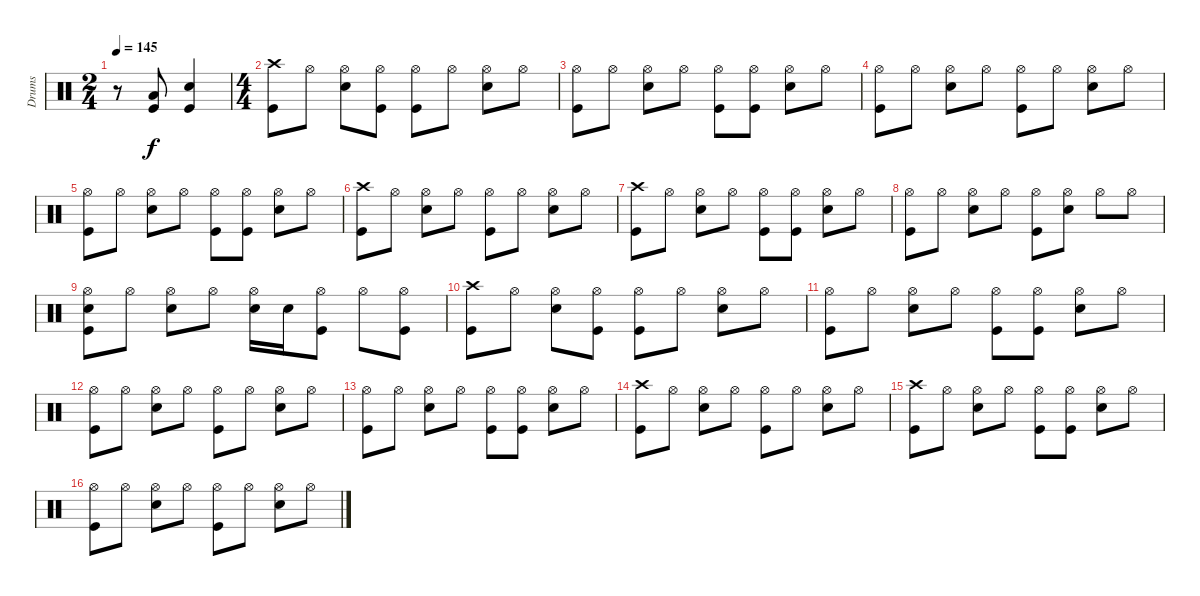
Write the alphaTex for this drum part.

\track ("Drums" "Drums") {instrument percussion}
\staff {score}
\articulation defaults
\ts (2 4)
\tempo 145
\clef neutral
\ks c
r.8{dy f} ("Low Floor Tom (hit)" "Kick (hit)").8 ("Snare (hit) 2" "Kick (hit)").4 |
\ts (4 4)
("Crash high (hit)" "Kick (hit)").8 "Hi-Hat (open)".8 ("Hi-Hat (open)" "Snare (hit) 2").8 ("Hi-Hat (open)" "Kick (hit)").8 ("Hi-Hat (open)" "Kick (hit)").8 "Hi-Hat (open)".8 ("Hi-Hat (open)" "Snare (hit) 2").8 "Hi-Hat (open)".8 |
("Hi-Hat (open)" "Kick (hit)").8 "Hi-Hat (open)".8 ("Hi-Hat (open)" "Snare (hit) 2").8 "Hi-Hat (open)".8 ("Hi-Hat (open)" "Kick (hit)").8 ("Hi-Hat (open)" "Kick (hit)").8 ("Hi-Hat (open)" "Snare (hit) 2").8 "Hi-Hat (open)".8 |
("Hi-Hat (open)" "Kick (hit)").8 "Hi-Hat (open)".8 ("Hi-Hat (open)" "Snare (hit) 2").8 "Hi-Hat (open)".8 ("Hi-Hat (open)" "Kick (hit)").8 "Hi-Hat (open)".8 ("Hi-Hat (open)" "Snare (hit) 2").8 "Hi-Hat (open)".8 |
("Hi-Hat (open)" "Kick (hit)").8 "Hi-Hat (open)".8 ("Hi-Hat (open)" "Snare (hit) 2").8 "Hi-Hat (open)".8 ("Hi-Hat (open)" "Kick (hit)").8 ("Hi-Hat (open)" "Kick (hit)").8 ("Hi-Hat (open)" "Snare (hit) 2").8 "Hi-Hat (open)".8 |
("Crash high (hit)" "Kick (hit)").8 "Hi-Hat (open)".8 ("Hi-Hat (open)" "Snare (hit) 2").8 "Hi-Hat (open)".8 ("Hi-Hat (open)" "Kick (hit)").8 "Hi-Hat (open)".8 ("Hi-Hat (open)" "Snare (hit) 2").8 "Hi-Hat (open)".8 |
("Crash high (hit)" "Kick (hit)").8 "Hi-Hat (open)".8 ("Hi-Hat (open)" "Snare (hit) 2").8 "Hi-Hat (open)".8 ("Hi-Hat (open)" "Kick (hit)").8 ("Hi-Hat (open)" "Kick (hit)").8 ("Hi-Hat (open)" "Snare (hit) 2").8 "Hi-Hat (open)".8 |
("Hi-Hat (open)" "Kick (hit)").8 "Hi-Hat (open)".8 ("Hi-Hat (open)" "Snare (hit) 2").8 "Hi-Hat (open)".8 ("Hi-Hat (open)" "Kick (hit)").8 ("Hi-Hat (open)" "Snare (hit) 2").8 "Hi-Hat (open)".8 "Hi-Hat (open)".8 |
("Hi-Hat (open)" "Snare (hit) 2" "Kick (hit)").8 "Hi-Hat (open)".8 ("Hi-Hat (open)" "Snare (hit) 2").8 "Hi-Hat (open)".8 ("Hi-Hat (open)" "Snare (hit) 2").16 "Snare (hit) 2".16 ("Hi-Hat (open)" "Kick (hit)").8 "Hi-Hat (open)".8 ("Hi-Hat (open)" "Kick (hit)").8 |
("Crash high (hit)" "Kick (hit)").8 "Hi-Hat (open)".8 ("Hi-Hat (open)" "Snare (hit) 2").8 ("Hi-Hat (open)" "Kick (hit)").8 ("Hi-Hat (open)" "Kick (hit)").8 "Hi-Hat (open)".8 ("Hi-Hat (open)" "Snare (hit) 2").8 "Hi-Hat (open)".8 |
("Hi-Hat (open)" "Kick (hit)").8 "Hi-Hat (open)".8 ("Hi-Hat (open)" "Snare (hit) 2").8 "Hi-Hat (open)".8 ("Hi-Hat (open)" "Kick (hit)").8 ("Hi-Hat (open)" "Kick (hit)").8 ("Hi-Hat (open)" "Snare (hit) 2").8 "Hi-Hat (open)".8 |
("Hi-Hat (open)" "Kick (hit)").8 "Hi-Hat (open)".8 ("Hi-Hat (open)" "Snare (hit) 2").8 "Hi-Hat (open)".8 ("Hi-Hat (open)" "Kick (hit)").8 "Hi-Hat (open)".8 ("Hi-Hat (open)" "Snare (hit) 2").8 "Hi-Hat (open)".8 |
("Hi-Hat (open)" "Kick (hit)").8 "Hi-Hat (open)".8 ("Hi-Hat (open)" "Snare (hit) 2").8 "Hi-Hat (open)".8 ("Hi-Hat (open)" "Kick (hit)").8 ("Hi-Hat (open)" "Kick (hit)").8 ("Hi-Hat (open)" "Snare (hit) 2").8 "Hi-Hat (open)".8 |
("Crash high (hit)" "Kick (hit)").8 "Hi-Hat (open)".8 ("Hi-Hat (open)" "Snare (hit) 2").8 "Hi-Hat (open)".8 ("Hi-Hat (open)" "Kick (hit)").8 "Hi-Hat (open)".8 ("Hi-Hat (open)" "Snare (hit) 2").8 "Hi-Hat (open)".8 |
("Crash high (hit)" "Kick (hit)").8 "Hi-Hat (open)".8 ("Hi-Hat (open)" "Snare (hit) 2").8 "Hi-Hat (open)".8 ("Hi-Hat (open)" "Kick (hit)").8 ("Hi-Hat (open)" "Kick (hit)").8 ("Hi-Hat (open)" "Snare (hit) 2").8 "Hi-Hat (open)".8 |
("Hi-Hat (open)" "Kick (hit)").8 "Hi-Hat (open)".8 ("Hi-Hat (open)" "Snare (hit) 2").8 "Hi-Hat (open)".8 ("Hi-Hat (open)" "Kick (hit)").8 "Hi-Hat (open)".8 ("Hi-Hat (open)" "Snare (hit) 2").8 "Hi-Hat (open)".8
